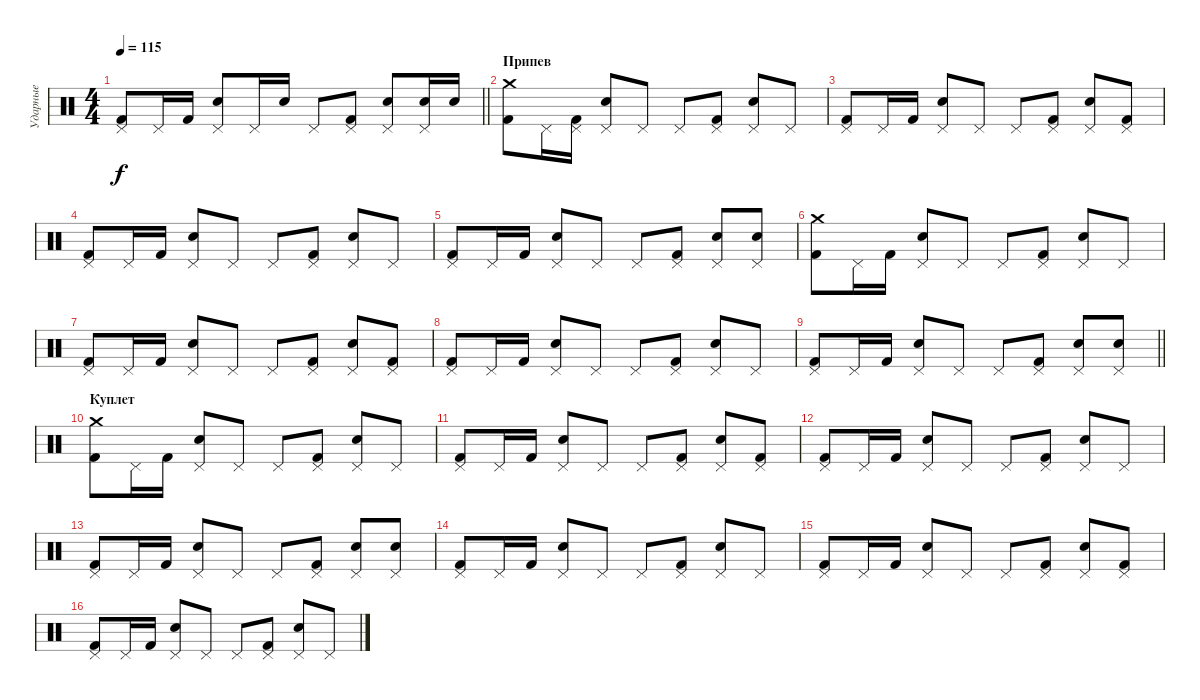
\track ("Ударные" "Ударные") {instrument percussion}
\staff {score}
\articulation defaults
\ts (4 4)
\tempo 115
\clef neutral
\barLineRight lightlight
\ks c
("Pedal Hi-Hat (hit)" "Kick (hit) 2").8{dy f} "Pedal Hi-Hat (hit)".16 "Kick (hit) 2".16 ("Pedal Hi-Hat (hit)" "Electric Snare (hit)").8 "Pedal Hi-Hat (hit)".16 "Electric Snare (hit)".16 "Pedal Hi-Hat (hit)".8 ("Pedal Hi-Hat (hit)" "Kick (hit) 2").8 ("Pedal Hi-Hat (hit)" "Electric Snare (hit)").8 ("Pedal Hi-Hat (hit)" "Electric Snare (hit)").16 "Electric Snare (hit)".16 |
\section ("" "Припев")
("Crash medium (hit)" "Kick (hit) 2").8 "Pedal Hi-Hat (hit)".16 ("Pedal Hi-Hat (hit)" "Kick (hit) 2").16 ("Pedal Hi-Hat (hit)" "Electric Snare (hit)").8 "Pedal Hi-Hat (hit)".8 "Pedal Hi-Hat (hit)".8 ("Pedal Hi-Hat (hit)" "Kick (hit) 2").8 ("Pedal Hi-Hat (hit)" "Electric Snare (hit)").8 "Pedal Hi-Hat (hit)".8 |
("Pedal Hi-Hat (hit)" "Kick (hit) 2").8 "Pedal Hi-Hat (hit)".16 "Kick (hit) 2".16 ("Pedal Hi-Hat (hit)" "Electric Snare (hit)").8 "Pedal Hi-Hat (hit)".8 "Pedal Hi-Hat (hit)".8 ("Pedal Hi-Hat (hit)" "Kick (hit) 2").8 ("Pedal Hi-Hat (hit)" "Electric Snare (hit)").8 ("Pedal Hi-Hat (hit)" "Kick (hit) 2").8 |
("Pedal Hi-Hat (hit)" "Kick (hit) 2").8 "Pedal Hi-Hat (hit)".16 "Kick (hit) 2".16 ("Pedal Hi-Hat (hit)" "Electric Snare (hit)").8 "Pedal Hi-Hat (hit)".8 "Pedal Hi-Hat (hit)".8 ("Pedal Hi-Hat (hit)" "Kick (hit) 2").8 ("Pedal Hi-Hat (hit)" "Electric Snare (hit)").8 "Pedal Hi-Hat (hit)".8 |
("Pedal Hi-Hat (hit)" "Kick (hit) 2").8 "Pedal Hi-Hat (hit)".16 "Kick (hit) 2".16 ("Pedal Hi-Hat (hit)" "Electric Snare (hit)").8 "Pedal Hi-Hat (hit)".8 "Pedal Hi-Hat (hit)".8 ("Pedal Hi-Hat (hit)" "Kick (hit) 2").8 ("Pedal Hi-Hat (hit)" "Electric Snare (hit)").8 ("Pedal Hi-Hat (hit)" "Electric Snare (hit)").8 |
("Crash medium (hit)" "Kick (hit) 2").8 "Pedal Hi-Hat (hit)".16 "Kick (hit) 2".16 ("Pedal Hi-Hat (hit)" "Electric Snare (hit)").8 "Pedal Hi-Hat (hit)".8 "Pedal Hi-Hat (hit)".8 ("Pedal Hi-Hat (hit)" "Kick (hit) 2").8 ("Pedal Hi-Hat (hit)" "Electric Snare (hit)").8 "Pedal Hi-Hat (hit)".8 |
("Pedal Hi-Hat (hit)" "Kick (hit) 2").8 "Pedal Hi-Hat (hit)".16 "Kick (hit) 2".16 ("Pedal Hi-Hat (hit)" "Electric Snare (hit)").8 "Pedal Hi-Hat (hit)".8 "Pedal Hi-Hat (hit)".8 ("Pedal Hi-Hat (hit)" "Kick (hit) 2").8 ("Pedal Hi-Hat (hit)" "Electric Snare (hit)").8 ("Pedal Hi-Hat (hit)" "Kick (hit) 2").8 |
("Pedal Hi-Hat (hit)" "Kick (hit) 2").8 "Pedal Hi-Hat (hit)".16 "Kick (hit) 2".16 ("Pedal Hi-Hat (hit)" "Electric Snare (hit)").8 "Pedal Hi-Hat (hit)".8 "Pedal Hi-Hat (hit)".8 ("Pedal Hi-Hat (hit)" "Kick (hit) 2").8 ("Pedal Hi-Hat (hit)" "Electric Snare (hit)").8 "Pedal Hi-Hat (hit)".8 |
\barLineRight lightlight
("Pedal Hi-Hat (hit)" "Kick (hit) 2").8 "Pedal Hi-Hat (hit)".16 "Kick (hit) 2".16 ("Pedal Hi-Hat (hit)" "Electric Snare (hit)").8 "Pedal Hi-Hat (hit)".8 "Pedal Hi-Hat (hit)".8 ("Pedal Hi-Hat (hit)" "Kick (hit) 2").8 ("Pedal Hi-Hat (hit)" "Electric Snare (hit)").8 ("Pedal Hi-Hat (hit)" "Electric Snare (hit)").8 |
\section ("" "Куплет")
("Crash medium (hit)" "Kick (hit) 2").8 "Pedal Hi-Hat (hit)".16 "Kick (hit) 2".16 ("Pedal Hi-Hat (hit)" "Electric Snare (hit)").8 "Pedal Hi-Hat (hit)".8 "Pedal Hi-Hat (hit)".8 ("Pedal Hi-Hat (hit)" "Kick (hit) 2").8 ("Pedal Hi-Hat (hit)" "Electric Snare (hit)").8 "Pedal Hi-Hat (hit)".8 |
("Pedal Hi-Hat (hit)" "Kick (hit) 2").8 "Pedal Hi-Hat (hit)".16 "Kick (hit) 2".16 ("Pedal Hi-Hat (hit)" "Electric Snare (hit)").8 "Pedal Hi-Hat (hit)".8 "Pedal Hi-Hat (hit)".8 ("Pedal Hi-Hat (hit)" "Kick (hit) 2").8 ("Pedal Hi-Hat (hit)" "Electric Snare (hit)").8 ("Pedal Hi-Hat (hit)" "Kick (hit) 2").8 |
("Pedal Hi-Hat (hit)" "Kick (hit) 2").8 "Pedal Hi-Hat (hit)".16 "Kick (hit) 2".16 ("Pedal Hi-Hat (hit)" "Electric Snare (hit)").8 "Pedal Hi-Hat (hit)".8 "Pedal Hi-Hat (hit)".8 ("Pedal Hi-Hat (hit)" "Kick (hit) 2").8 ("Pedal Hi-Hat (hit)" "Electric Snare (hit)").8 "Pedal Hi-Hat (hit)".8 |
("Pedal Hi-Hat (hit)" "Kick (hit) 2").8 "Pedal Hi-Hat (hit)".16 "Kick (hit) 2".16 ("Pedal Hi-Hat (hit)" "Electric Snare (hit)").8 "Pedal Hi-Hat (hit)".8 "Pedal Hi-Hat (hit)".8 ("Pedal Hi-Hat (hit)" "Kick (hit) 2").8 ("Pedal Hi-Hat (hit)" "Electric Snare (hit)").8 ("Pedal Hi-Hat (hit)" "Electric Snare (hit)").8 |
("Pedal Hi-Hat (hit)" "Kick (hit) 2").8 "Pedal Hi-Hat (hit)".16 "Kick (hit) 2".16 ("Pedal Hi-Hat (hit)" "Electric Snare (hit)").8 "Pedal Hi-Hat (hit)".8 "Pedal Hi-Hat (hit)".8 ("Pedal Hi-Hat (hit)" "Kick (hit) 2").8 ("Pedal Hi-Hat (hit)" "Electric Snare (hit)").8 "Pedal Hi-Hat (hit)".8 |
("Pedal Hi-Hat (hit)" "Kick (hit) 2").8 "Pedal Hi-Hat (hit)".16 "Kick (hit) 2".16 ("Pedal Hi-Hat (hit)" "Electric Snare (hit)").8 "Pedal Hi-Hat (hit)".8 "Pedal Hi-Hat (hit)".8 ("Pedal Hi-Hat (hit)" "Kick (hit) 2").8 ("Pedal Hi-Hat (hit)" "Electric Snare (hit)").8 ("Pedal Hi-Hat (hit)" "Kick (hit) 2").8 |
("Pedal Hi-Hat (hit)" "Kick (hit) 2").8 "Pedal Hi-Hat (hit)".16 "Kick (hit) 2".16 ("Pedal Hi-Hat (hit)" "Electric Snare (hit)").8 "Pedal Hi-Hat (hit)".8 "Pedal Hi-Hat (hit)".8 ("Pedal Hi-Hat (hit)" "Kick (hit) 2").8 ("Pedal Hi-Hat (hit)" "Electric Snare (hit)").8 "Pedal Hi-Hat (hit)".8
